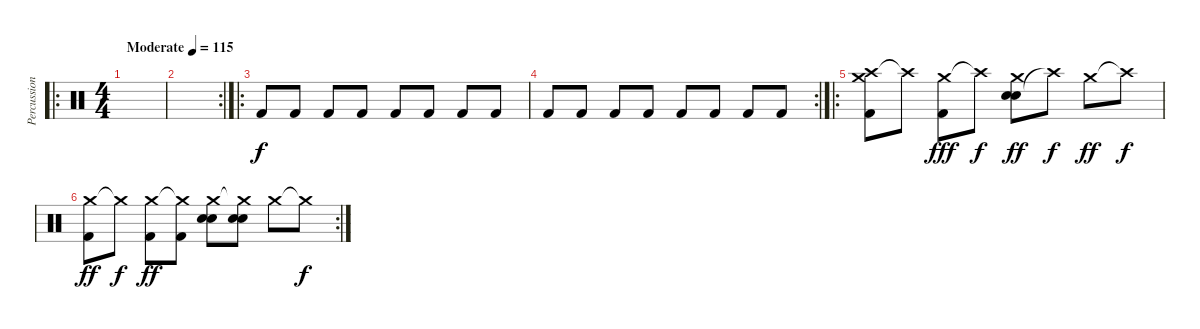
\track ("Percussion" "Percussion") {instrument percussion}
\staff {score}
\articulation defaults
\ro
\ts (4 4)
\tempo (115 "Moderate")
\clef neutral
\ks c
|
\rc 2
|
\ro "Kick (hit) 2".8 "Kick (hit) 2".8 "Kick (hit) 2".8 "Kick (hit) 2".8 "Kick (hit) 2".8 "Kick (hit) 2".8 "Kick (hit) 2".8 "Kick (hit) 2".8
|
\rc 2 "Kick (hit) 2".8 "Kick (hit) 2".8 "Kick (hit) 2".8 "Kick (hit) 2".8 "Kick (hit) 2".8 "Kick (hit) 2".8 "Kick (hit) 2".8 "Kick (hit) 2".8
|
\ro
("Crash high (hit)" "Crash medium (hit)" "Kick (hit) 2").8 "Crash high (hit)"{t}.8{dy f} ("Crash medium (hit)" "Kick (hit) 2").8{dy fff} "Crash high (hit)"{t}.8{dy f} ("Snare (hit) 2" "Electric Snare (hit)" "Crash medium (hit)").8{dy ff} "Crash high (hit)"{t}.8{dy f} "Crash medium (hit)".8{dy ff} "Crash high (hit)"{t}.8{dy f} |
\rc 2
("Crash medium (hit)" "Kick (hit) 2").8{dy ff} "Crash medium (hit)"{t}.8{dy f} ("Crash medium (hit)" "Kick (hit) 2").8{dy ff} ("Crash medium (hit)"{t} "Kick (hit) 2").8 ("Snare (hit) 2" "Electric Snare (hit)" "Crash medium (hit)").8 ("Snare (hit) 2" "Electric Snare (hit)" "Crash medium (hit)"{t}).8 "Crash medium (hit)".8 "Crash medium (hit)"{t}.8{dy f}
